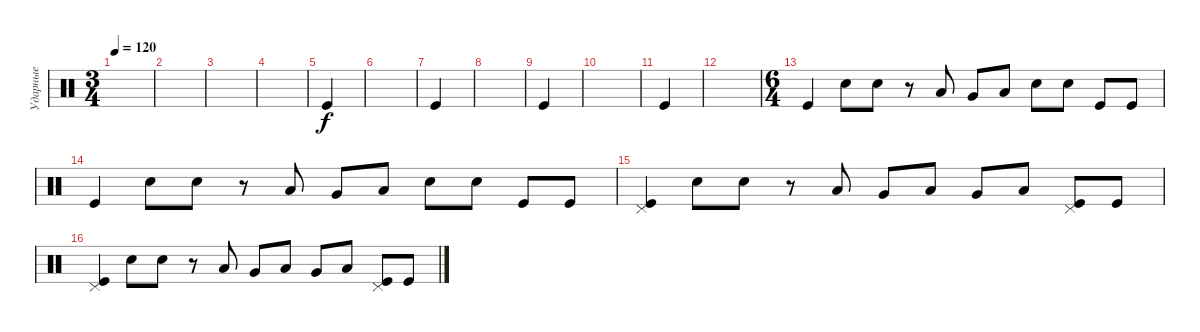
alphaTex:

\track ("Ударные" "Ударные") {instrument percussion}
\staff {score}
\articulation defaults
\ts (3 4)
\tempo 120
\clef neutral
\ks c
|
|
|
|
"Kick (hit)".4 |
|
"Kick (hit)".4 |
|
"Kick (hit)".4 |
|
"Kick (hit)".4 |
|
\ts (6 4)
"Kick (hit)".4 "Electric Snare (hit)".8 "Electric Snare (hit)".8 r.8 "Low Tom (hit)".8 "Very Low Tom (hit)".8 "Low Floor Tom (hit)".8 "Electric Snare (hit)".8 "Electric Snare (hit)".8 "Kick (hit)".8 "Kick (hit)".8 |
"Kick (hit)".4 "Electric Snare (hit)".8 "Electric Snare (hit)".8 r.8 "Low Tom (hit)".8 "Very Low Tom (hit)".8 "Low Floor Tom (hit)".8 "Electric Snare (hit)".8 "Electric Snare (hit)".8 "Kick (hit)".8 "Kick (hit)".8 |
("Pedal Hi-Hat (hit)" "Kick (hit)").4 "Electric Snare (hit)".8 "Electric Snare (hit)".8 r.8 "Low Tom (hit)".8 "Very Low Tom (hit)".8 "Low Floor Tom (hit)".8 "Very Low Tom (hit)".8 "Low Floor Tom (hit)".8 ("Pedal Hi-Hat (hit)" "Kick (hit)").8 "Kick (hit)".8 |
("Pedal Hi-Hat (hit)" "Kick (hit)").4 "Electric Snare (hit)".8 "Electric Snare (hit)".8 r.8 "Low Tom (hit)".8 "Very Low Tom (hit)".8 "Low Floor Tom (hit)".8 "Very Low Tom (hit)".8 "Low Floor Tom (hit)".8 ("Pedal Hi-Hat (hit)" "Kick (hit)").8 "Kick (hit)".8
